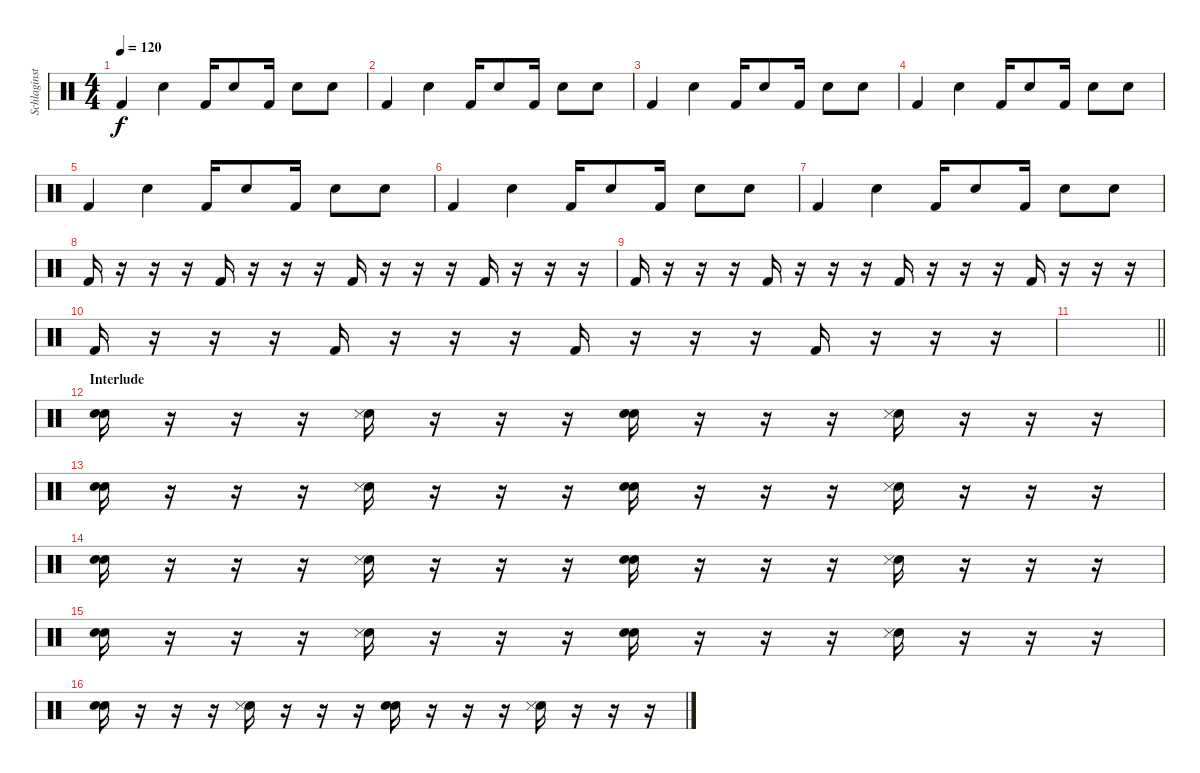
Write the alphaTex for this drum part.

\track ("Schlaginstrumente - Auswahl" "Schlaginst") {instrument percussion}
\staff {score}
\articulation defaults
\ts (4 4)
\tempo 120
\clef neutral
\ks c "Kick (hit) 2".4{dy f} "Snare (hit) 2".4 "Kick (hit) 2".16 "Snare (hit) 2".8 "Kick (hit) 2".16 "Snare (hit) 2".8 "Snare (hit) 2".8
|
"Kick (hit) 2".4 "Snare (hit) 2".4 "Kick (hit) 2".16 "Snare (hit) 2".8 "Kick (hit) 2".16 "Snare (hit) 2".8 "Snare (hit) 2".8 |
"Kick (hit) 2".4 "Snare (hit) 2".4 "Kick (hit) 2".16 "Snare (hit) 2".8 "Kick (hit) 2".16 "Snare (hit) 2".8 "Snare (hit) 2".8 |
"Kick (hit) 2".4 "Snare (hit) 2".4 "Kick (hit) 2".16 "Snare (hit) 2".8 "Kick (hit) 2".16 "Snare (hit) 2".8 "Snare (hit) 2".8 |
"Kick (hit) 2".4 "Snare (hit) 2".4 "Kick (hit) 2".16 "Snare (hit) 2".8 "Kick (hit) 2".16 "Snare (hit) 2".8 "Snare (hit) 2".8 |
"Kick (hit) 2".4 "Snare (hit) 2".4 "Kick (hit) 2".16 "Snare (hit) 2".8 "Kick (hit) 2".16 "Snare (hit) 2".8 "Snare (hit) 2".8 |
"Kick (hit) 2".4 "Snare (hit) 2".4 "Kick (hit) 2".16 "Snare (hit) 2".8 "Kick (hit) 2".16 "Snare (hit) 2".8 "Snare (hit) 2".8 |
"Kick (hit) 2".16 r.16 r.16 r.16 "Kick (hit) 2".16 r.16 r.16 r.16 "Kick (hit) 2".16 r.16 r.16 r.16 "Kick (hit) 2".16 r.16 r.16 r.16 |
"Kick (hit) 2".16 r.16 r.16 r.16 "Kick (hit) 2".16 r.16 r.16 r.16 "Kick (hit) 2".16 r.16 r.16 r.16 "Kick (hit) 2".16 r.16 r.16 r.16 |
"Kick (hit) 2".16 r.16 r.16 r.16 "Kick (hit) 2".16 r.16 r.16 r.16 "Kick (hit) 2".16 r.16 r.16 r.16 "Kick (hit) 2".16 r.16 r.16 r.16 |
\barLineRight lightlight
|
\section ("" "Interlude")
("Snare (hit) 2" "Snare (hit) 2").16 r.16 r.16 r.16 ("Snare (hit) 2" "Snare (side stick) 3").16 r.16 r.16 r.16 ("Snare (hit) 2" "Snare (hit) 2").16 r.16 r.16 r.16 ("Snare (hit) 2" "Snare (side stick) 3").16 r.16 r.16 r.16 |
("Snare (hit) 2" "Snare (hit) 2").16 r.16 r.16 r.16 ("Snare (hit) 2" "Snare (side stick) 3").16 r.16 r.16 r.16 ("Snare (hit) 2" "Snare (hit) 2").16 r.16 r.16 r.16 ("Snare (hit) 2" "Snare (side stick) 3").16 r.16 r.16 r.16 |
("Snare (hit) 2" "Snare (hit) 2").16 r.16 r.16 r.16 ("Snare (hit) 2" "Snare (side stick) 3").16 r.16 r.16 r.16 ("Snare (hit) 2" "Snare (hit) 2").16 r.16 r.16 r.16 ("Snare (hit) 2" "Snare (side stick) 3").16 r.16 r.16 r.16 |
("Snare (hit) 2" "Snare (hit) 2").16 r.16 r.16 r.16 ("Snare (hit) 2" "Snare (side stick) 3").16 r.16 r.16 r.16 ("Snare (hit) 2" "Snare (hit) 2").16 r.16 r.16 r.16 ("Snare (hit) 2" "Snare (side stick) 3").16 r.16 r.16 r.16 |
("Snare (hit) 2" "Snare (hit) 2").16 r.16 r.16 r.16 ("Snare (hit) 2" "Snare (side stick) 3").16 r.16 r.16 r.16 ("Snare (hit) 2" "Snare (hit) 2").16 r.16 r.16 r.16 ("Snare (hit) 2" "Snare (side stick) 3").16 r.16 r.16 r.16
